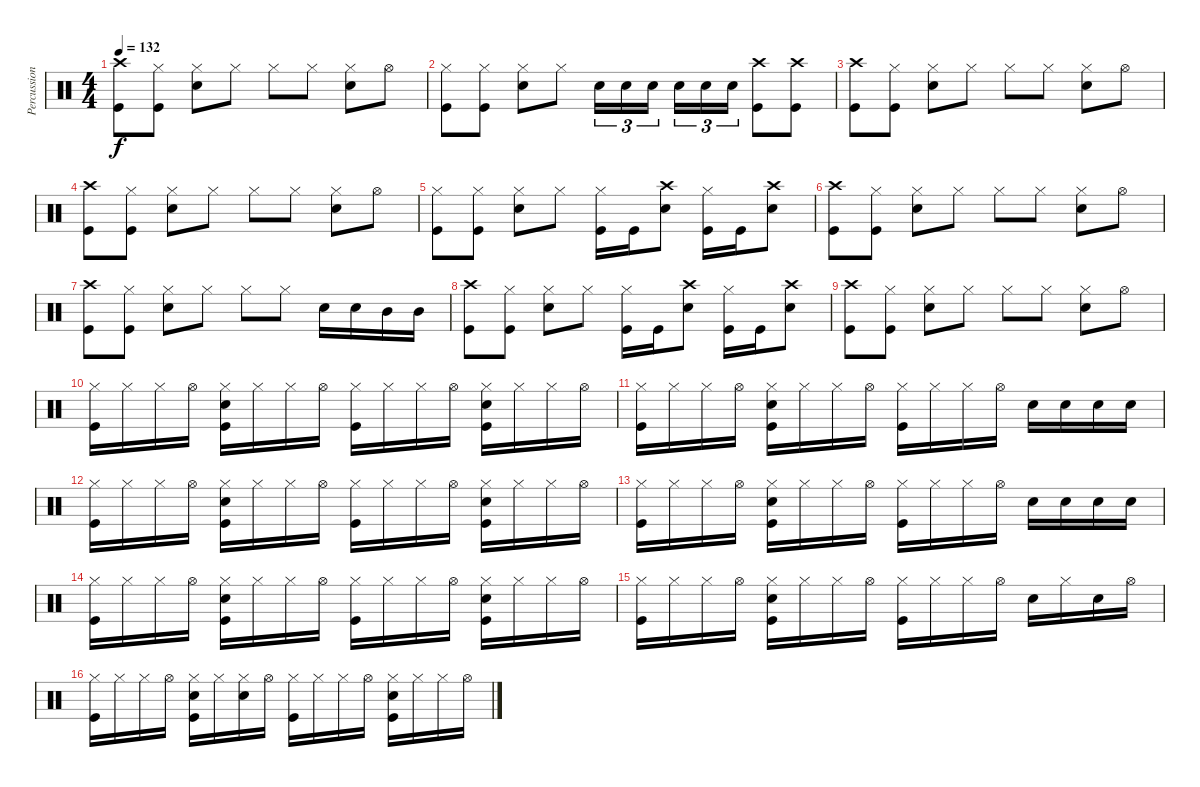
\track ("Percussion" "Percussion") {instrument percussion}
\staff {score}
\articulation defaults
\ts (4 4)
\tempo 132
\clef neutral
\ks c
("Crash high (hit)" "Kick (hit)").8{dy f} ("Hi-Hat (closed)" "Kick (hit)").8 ("Hi-Hat (closed)" "Electric Snare (hit)").8 "Hi-Hat (closed)".8 "Hi-Hat (closed)".8 "Hi-Hat (closed)".8 ("Hi-Hat (closed)" "Electric Snare (hit)").8 "Hi-Hat (open)".8 |
("Hi-Hat (closed)" "Kick (hit)").8 ("Hi-Hat (closed)" "Kick (hit)").8 ("Hi-Hat (closed)" "Electric Snare (hit)").8 "Hi-Hat (closed)".8 "Electric Snare (hit)".16{tu (3 2)} "Electric Snare (hit)".16{tu (3 2)} "Electric Snare (hit)".16{tu (3 2)} "Electric Snare (hit)".16{tu (3 2)} "Electric Snare (hit)".16{tu (3 2)} "Electric Snare (hit)".16{tu (3 2)} ("Crash high (hit)" "Kick (hit)").8 ("Crash high (hit)" "Kick (hit)").8 |
("Crash high (hit)" "Kick (hit)").8 ("Hi-Hat (closed)" "Kick (hit)").8 ("Hi-Hat (closed)" "Electric Snare (hit)").8 "Hi-Hat (closed)".8 "Hi-Hat (closed)".8 "Hi-Hat (closed)".8 ("Hi-Hat (closed)" "Electric Snare (hit)").8 "Hi-Hat (open)".8 |
("Crash high (hit)" "Kick (hit)").8 ("Hi-Hat (closed)" "Kick (hit)").8 ("Hi-Hat (closed)" "Electric Snare (hit)").8 "Hi-Hat (closed)".8 "Hi-Hat (closed)".8 "Hi-Hat (closed)".8 ("Hi-Hat (closed)" "Electric Snare (hit)").8 "Hi-Hat (open)".8 |
("Hi-Hat (closed)" "Kick (hit)").8 ("Hi-Hat (closed)" "Kick (hit)").8 ("Hi-Hat (closed)" "Electric Snare (hit)").8 "Hi-Hat (closed)".8 ("Hi-Hat (closed)" "Kick (hit)").16 "Kick (hit)".16 ("Crash high (hit)" "Electric Snare (hit)").8 ("Hi-Hat (closed)" "Kick (hit)").16 "Kick (hit)".16 ("Crash high (hit)" "Electric Snare (hit)").8 |
("Crash high (hit)" "Kick (hit)").8 ("Hi-Hat (closed)" "Kick (hit)").8 ("Hi-Hat (closed)" "Electric Snare (hit)").8 "Hi-Hat (closed)".8 "Hi-Hat (closed)".8 "Hi-Hat (closed)".8 ("Hi-Hat (closed)" "Electric Snare (hit)").8 "Hi-Hat (open)".8 |
("Crash high (hit)" "Kick (hit)").8 ("Hi-Hat (closed)" "Kick (hit)").8 ("Hi-Hat (closed)" "Electric Snare (hit)").8 "Hi-Hat (closed)".8 "Hi-Hat (closed)".8 "Hi-Hat (closed)".8 "Electric Snare (hit)".16 "Electric Snare (hit)".16 "Mid Tom (hit)".16 "Mid Tom (hit)".16 |
("Crash high (hit)" "Kick (hit)").8 ("Hi-Hat (closed)" "Kick (hit)").8 ("Hi-Hat (closed)" "Electric Snare (hit)").8 "Hi-Hat (closed)".8 ("Hi-Hat (closed)" "Kick (hit)").16 "Kick (hit)".16 ("Crash high (hit)" "Electric Snare (hit)").8 ("Hi-Hat (closed)" "Kick (hit)").16 "Kick (hit)".16 ("Crash high (hit)" "Electric Snare (hit)").8 |
("Crash high (hit)" "Kick (hit)").8 ("Hi-Hat (closed)" "Kick (hit)").8 ("Hi-Hat (closed)" "Electric Snare (hit)").8 "Hi-Hat (closed)".8 "Hi-Hat (closed)".8 "Hi-Hat (closed)".8 ("Hi-Hat (closed)" "Electric Snare (hit)").8 "Hi-Hat (open)".8 |
("Hi-Hat (closed)" "Kick (hit)").16 "Hi-Hat (closed)".16 "Hi-Hat (closed)".16 "Hi-Hat (open)".16 ("Hi-Hat (closed)" "Electric Snare (hit)" "Kick (hit)").16 "Hi-Hat (closed)".16 "Hi-Hat (closed)".16 "Hi-Hat (open)".16 ("Hi-Hat (closed)" "Kick (hit)").16 "Hi-Hat (closed)".16 "Hi-Hat (closed)".16 "Hi-Hat (open)".16 ("Hi-Hat (closed)" "Electric Snare (hit)" "Kick (hit)").16 "Hi-Hat (closed)".16 "Hi-Hat (closed)".16 "Hi-Hat (open)".16 |
("Hi-Hat (closed)" "Kick (hit)").16 "Hi-Hat (closed)".16 "Hi-Hat (closed)".16 "Hi-Hat (open)".16 ("Hi-Hat (closed)" "Electric Snare (hit)" "Kick (hit)").16 "Hi-Hat (closed)".16 "Hi-Hat (closed)".16 "Hi-Hat (open)".16 ("Hi-Hat (closed)" "Kick (hit)").16 "Hi-Hat (closed)".16 "Hi-Hat (closed)".16 "Hi-Hat (open)".16 "Electric Snare (hit)".16 "Electric Snare (hit)".16 "Electric Snare (hit)".16 "Electric Snare (hit)".16 |
("Hi-Hat (closed)" "Kick (hit)").16 "Hi-Hat (closed)".16 "Hi-Hat (closed)".16 "Hi-Hat (open)".16 ("Hi-Hat (closed)" "Electric Snare (hit)" "Kick (hit)").16 "Hi-Hat (closed)".16 "Hi-Hat (closed)".16 "Hi-Hat (open)".16 ("Hi-Hat (closed)" "Kick (hit)").16 "Hi-Hat (closed)".16 "Hi-Hat (closed)".16 "Hi-Hat (open)".16 ("Hi-Hat (closed)" "Electric Snare (hit)" "Kick (hit)").16 "Hi-Hat (closed)".16 "Hi-Hat (closed)".16 "Hi-Hat (open)".16 |
("Hi-Hat (closed)" "Kick (hit)").16 "Hi-Hat (closed)".16 "Hi-Hat (closed)".16 "Hi-Hat (open)".16 ("Hi-Hat (closed)" "Electric Snare (hit)" "Kick (hit)").16 "Hi-Hat (closed)".16 "Hi-Hat (closed)".16 "Hi-Hat (open)".16 ("Hi-Hat (closed)" "Kick (hit)").16 "Hi-Hat (closed)".16 "Hi-Hat (closed)".16 "Hi-Hat (open)".16 "Electric Snare (hit)".16 "Electric Snare (hit)".16 "Electric Snare (hit)".16 "Electric Snare (hit)".16 |
("Hi-Hat (closed)" "Kick (hit)").16 "Hi-Hat (closed)".16 "Hi-Hat (closed)".16 "Hi-Hat (open)".16 ("Hi-Hat (closed)" "Electric Snare (hit)" "Kick (hit)").16 "Hi-Hat (closed)".16 "Hi-Hat (closed)".16 "Hi-Hat (open)".16 ("Hi-Hat (closed)" "Kick (hit)").16 "Hi-Hat (closed)".16 "Hi-Hat (closed)".16 "Hi-Hat (open)".16 ("Hi-Hat (closed)" "Electric Snare (hit)" "Kick (hit)").16 "Hi-Hat (closed)".16 "Hi-Hat (closed)".16 "Hi-Hat (open)".16 |
("Hi-Hat (closed)" "Kick (hit)").16 "Hi-Hat (closed)".16 "Hi-Hat (closed)".16 "Hi-Hat (open)".16 ("Hi-Hat (closed)" "Electric Snare (hit)" "Kick (hit)").16 "Hi-Hat (closed)".16 "Hi-Hat (closed)".16 "Hi-Hat (open)".16 ("Hi-Hat (closed)" "Kick (hit)").16 "Hi-Hat (closed)".16 "Hi-Hat (closed)".16 "Hi-Hat (open)".16 "Electric Snare (hit)".16 "Hi-Hat (closed)".16 "Electric Snare (hit)".16 "Hi-Hat (open)".16 |
("Hi-Hat (closed)" "Kick (hit)").16 "Hi-Hat (closed)".16 "Hi-Hat (closed)".16 "Hi-Hat (open)".16 ("Hi-Hat (closed)" "Electric Snare (hit)" "Kick (hit)").16 "Hi-Hat (closed)".16 ("Hi-Hat (closed)" "Electric Snare (hit)").16 "Hi-Hat (open)".16 ("Hi-Hat (closed)" "Kick (hit)").16 "Hi-Hat (closed)".16 "Hi-Hat (closed)".16 "Hi-Hat (open)".16 ("Hi-Hat (closed)" "Electric Snare (hit)" "Kick (hit)").16 "Hi-Hat (closed)".16 "Hi-Hat (closed)".16 "Hi-Hat (open)".16
